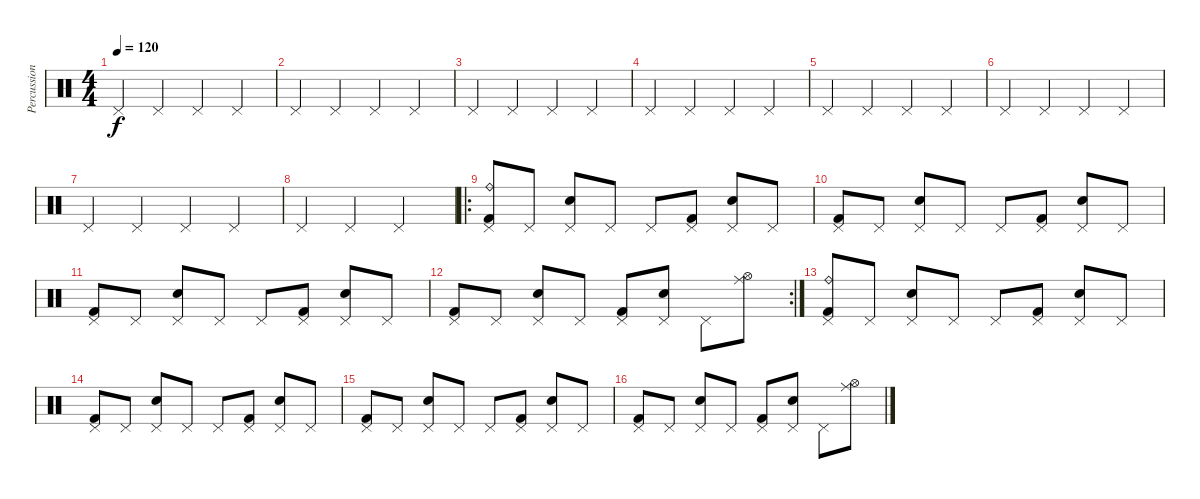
\track ("Percussion" "Percussion") {instrument percussion}
\staff {score}
\articulation defaults
\ts (4 4)
\tempo 120
\clef neutral
\ks c "Pedal Hi-Hat (hit)".4{dy f} "Pedal Hi-Hat (hit)".4 "Pedal Hi-Hat (hit)".4 "Pedal Hi-Hat (hit)".4
|
"Pedal Hi-Hat (hit)".4 "Pedal Hi-Hat (hit)".4 "Pedal Hi-Hat (hit)".4 "Pedal Hi-Hat (hit)".4 |
"Pedal Hi-Hat (hit)".4 "Pedal Hi-Hat (hit)".4 "Pedal Hi-Hat (hit)".4 "Pedal Hi-Hat (hit)".4 |
"Pedal Hi-Hat (hit)".4 "Pedal Hi-Hat (hit)".4 "Pedal Hi-Hat (hit)".4 "Pedal Hi-Hat (hit)".4 |
"Pedal Hi-Hat (hit)".4 "Pedal Hi-Hat (hit)".4 "Pedal Hi-Hat (hit)".4 "Pedal Hi-Hat (hit)".4 |
"Pedal Hi-Hat (hit)".4 "Pedal Hi-Hat (hit)".4 "Pedal Hi-Hat (hit)".4 "Pedal Hi-Hat (hit)".4 |
"Pedal Hi-Hat (hit)".4 "Pedal Hi-Hat (hit)".4 "Pedal Hi-Hat (hit)".4 "Pedal Hi-Hat (hit)".4 |
"Pedal Hi-Hat (hit)".4 "Pedal Hi-Hat (hit)".4 "Pedal Hi-Hat (hit)".2 |
\ro
("Pedal Hi-Hat (hit)" "Kick (hit) 2" "Ride (bell)").8 "Pedal Hi-Hat (hit)".8 ("Pedal Hi-Hat (hit)" "Electric Snare (hit)").8 "Pedal Hi-Hat (hit)".8 "Pedal Hi-Hat (hit)".8 ("Pedal Hi-Hat (hit)" "Kick (hit) 2").8 ("Pedal Hi-Hat (hit)" "Electric Snare (hit)").8 "Pedal Hi-Hat (hit)".8 |
("Pedal Hi-Hat (hit)" "Kick (hit) 2").8 "Pedal Hi-Hat (hit)".8 ("Pedal Hi-Hat (hit)" "Electric Snare (hit)").8 "Pedal Hi-Hat (hit)".8 "Pedal Hi-Hat (hit)".8 ("Pedal Hi-Hat (hit)" "Kick (hit) 2").8 ("Pedal Hi-Hat (hit)" "Electric Snare (hit)").8 "Pedal Hi-Hat (hit)".8 |
("Pedal Hi-Hat (hit)" "Kick (hit) 2").8 "Pedal Hi-Hat (hit)".8 ("Pedal Hi-Hat (hit)" "Electric Snare (hit)").8 "Pedal Hi-Hat (hit)".8 "Pedal Hi-Hat (hit)".8 ("Pedal Hi-Hat (hit)" "Kick (hit) 2").8 ("Pedal Hi-Hat (hit)" "Electric Snare (hit)").8 "Pedal Hi-Hat (hit)".8 |
\rc 2
("Pedal Hi-Hat (hit)" "Kick (hit) 2").8 "Pedal Hi-Hat (hit)".8 ("Pedal Hi-Hat (hit)" "Electric Snare (hit)").8 "Pedal Hi-Hat (hit)".8 ("Pedal Hi-Hat (hit)" "Kick (hit) 2").8 ("Pedal Hi-Hat (hit)" "Electric Snare (hit)").8 "Pedal Hi-Hat (hit)".8 ("Hi-Hat (open)" "Ride (middle)").8 |
("Pedal Hi-Hat (hit)" "Kick (hit) 2" "Ride (bell)").8 "Pedal Hi-Hat (hit)".8 ("Pedal Hi-Hat (hit)" "Electric Snare (hit)").8 "Pedal Hi-Hat (hit)".8 "Pedal Hi-Hat (hit)".8 ("Pedal Hi-Hat (hit)" "Kick (hit) 2").8 ("Pedal Hi-Hat (hit)" "Electric Snare (hit)").8 "Pedal Hi-Hat (hit)".8 |
("Pedal Hi-Hat (hit)" "Kick (hit) 2").8 "Pedal Hi-Hat (hit)".8 ("Pedal Hi-Hat (hit)" "Electric Snare (hit)").8 "Pedal Hi-Hat (hit)".8 "Pedal Hi-Hat (hit)".8 ("Pedal Hi-Hat (hit)" "Kick (hit) 2").8 ("Pedal Hi-Hat (hit)" "Electric Snare (hit)").8 "Pedal Hi-Hat (hit)".8 |
("Pedal Hi-Hat (hit)" "Kick (hit) 2").8 "Pedal Hi-Hat (hit)".8 ("Pedal Hi-Hat (hit)" "Electric Snare (hit)").8 "Pedal Hi-Hat (hit)".8 "Pedal Hi-Hat (hit)".8 ("Pedal Hi-Hat (hit)" "Kick (hit) 2").8 ("Pedal Hi-Hat (hit)" "Electric Snare (hit)").8 "Pedal Hi-Hat (hit)".8 |
("Pedal Hi-Hat (hit)" "Kick (hit) 2").8 "Pedal Hi-Hat (hit)".8 ("Pedal Hi-Hat (hit)" "Electric Snare (hit)").8 "Pedal Hi-Hat (hit)".8 ("Pedal Hi-Hat (hit)" "Kick (hit) 2").8 ("Pedal Hi-Hat (hit)" "Electric Snare (hit)").8 "Pedal Hi-Hat (hit)".8 ("Hi-Hat (open)" "Ride (middle)").8
